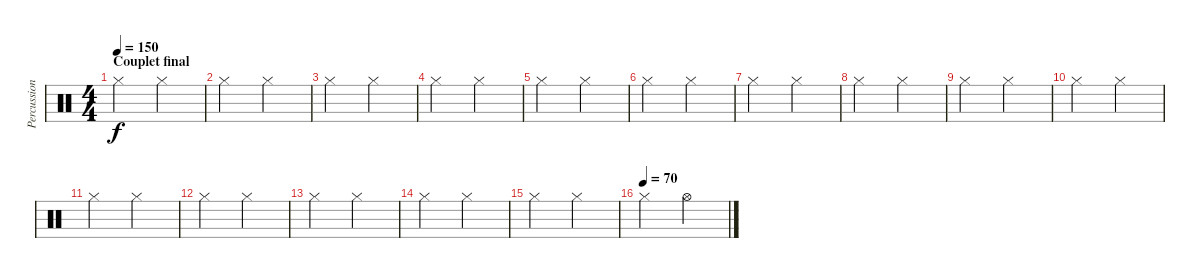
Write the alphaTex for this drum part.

\track ("Percussions" "Percussion") {instrument percussion}
\staff {score}
\articulation defaults
\ts (4 4)
\section ("" "Couplet final")
\tempo 150
\clef neutral
\ks c "Hi-Hat (closed)".2{dy f} "Hi-Hat (closed)".2
|
"Hi-Hat (closed)".2 "Hi-Hat (closed)".2 |
"Hi-Hat (closed)".2 "Hi-Hat (closed)".2 |
"Hi-Hat (closed)".2 "Hi-Hat (closed)".2 |
"Hi-Hat (closed)".2 "Hi-Hat (closed)".2 |
"Hi-Hat (closed)".2 "Hi-Hat (closed)".2 |
"Hi-Hat (closed)".2 "Hi-Hat (closed)".2 |
"Hi-Hat (closed)".2 "Hi-Hat (closed)".2 |
"Hi-Hat (closed)".2 "Hi-Hat (closed)".2 |
"Hi-Hat (closed)".2 "Hi-Hat (closed)".2 |
"Hi-Hat (closed)".2 "Hi-Hat (closed)".2 |
"Hi-Hat (closed)".2 "Hi-Hat (closed)".2 |
"Hi-Hat (closed)".2 "Hi-Hat (closed)".2 |
"Hi-Hat (closed)".2 "Hi-Hat (closed)".2 |
"Hi-Hat (closed)".2 "Hi-Hat (closed)".2 |
\tempo (70)
"Hi-Hat (closed)".2 "Hi-Hat (open)".2
